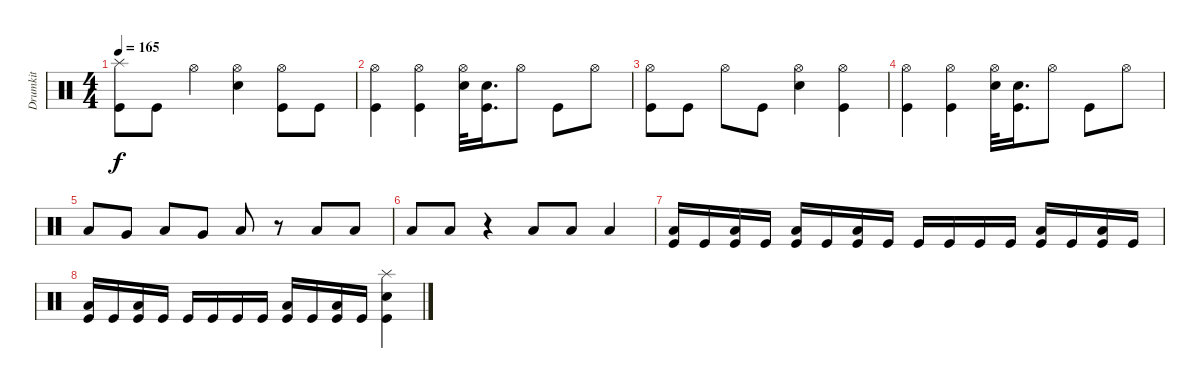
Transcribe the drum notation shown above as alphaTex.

\track ("Drumkit" "Drumkit") {instrument percussion}
\staff {score}
\articulation defaults
\ts (4 4)
\tempo 165
\clef neutral
\ks c
("Splash (hit)" "Kick (hit)").8{dy f} "Kick (hit)".8 "Hi-Hat (open)".4 ("Hi-Hat (open)" "Snare (hit) 2").4 ("Hi-Hat (open)" "Kick (hit)").8 "Kick (hit)".8 |
("Hi-Hat (open)" "Kick (hit)").4 ("Hi-Hat (open)" "Kick (hit)").4 ("Hi-Hat (open)" "Snare (hit) 2").32 ("Snare (hit) 2" "Kick (hit)").16{d} "Hi-Hat (open)".8 "Kick (hit)".8 "Hi-Hat (open)".8 |
("Hi-Hat (open)" "Kick (hit)").8 "Kick (hit)".8 "Hi-Hat (open)".8 "Kick (hit)".8 ("Hi-Hat (open)" "Snare (hit) 2").4 ("Hi-Hat (open)" "Kick (hit)").4 |
("Hi-Hat (open)" "Kick (hit)").4 ("Hi-Hat (open)" "Kick (hit)").4 ("Hi-Hat (open)" "Snare (hit) 2").32 ("Snare (hit) 2" "Kick (hit)").16{d} "Hi-Hat (open)".8 "Kick (hit)".8 "Hi-Hat (open)".8 |
"Low Floor Tom (hit)".8 "Very Low Tom (hit)".8 "Low Floor Tom (hit)".8 "Very Low Tom (hit)".8 "Low Floor Tom (hit)".8 r.8 "Low Floor Tom (hit)".8 "Low Floor Tom (hit)".8 |
"Low Floor Tom (hit)".8 "Low Floor Tom (hit)".8 r.4 "Low Floor Tom (hit)".8 "Low Floor Tom (hit)".8 "Low Floor Tom (hit)".4 |
("Low Floor Tom (hit)" "Kick (hit)").16 "Kick (hit)".16 ("Low Floor Tom (hit)" "Kick (hit)").16 "Kick (hit)".16 ("Low Floor Tom (hit)" "Kick (hit)").16 "Kick (hit)".16 ("Low Floor Tom (hit)" "Kick (hit)").16 "Kick (hit)".16 "Kick (hit)".16 "Kick (hit)".16 "Kick (hit)".16 "Kick (hit)".16 ("Low Floor Tom (hit)" "Kick (hit)").16 "Kick (hit)".16 ("Low Floor Tom (hit)" "Kick (hit)").16 "Kick (hit)".16 |
("Low Floor Tom (hit)" "Kick (hit)").16 "Kick (hit)".16 ("Low Floor Tom (hit)" "Kick (hit)").16 "Kick (hit)".16 "Kick (hit)".16 "Kick (hit)".16 "Kick (hit)".16 "Kick (hit)".16 ("Low Floor Tom (hit)" "Kick (hit)").16 "Kick (hit)".16 ("Low Floor Tom (hit)" "Kick (hit)").16 "Kick (hit)".16 ("Splash (hit)" "Snare (hit) 2" "Kick (hit)").4
